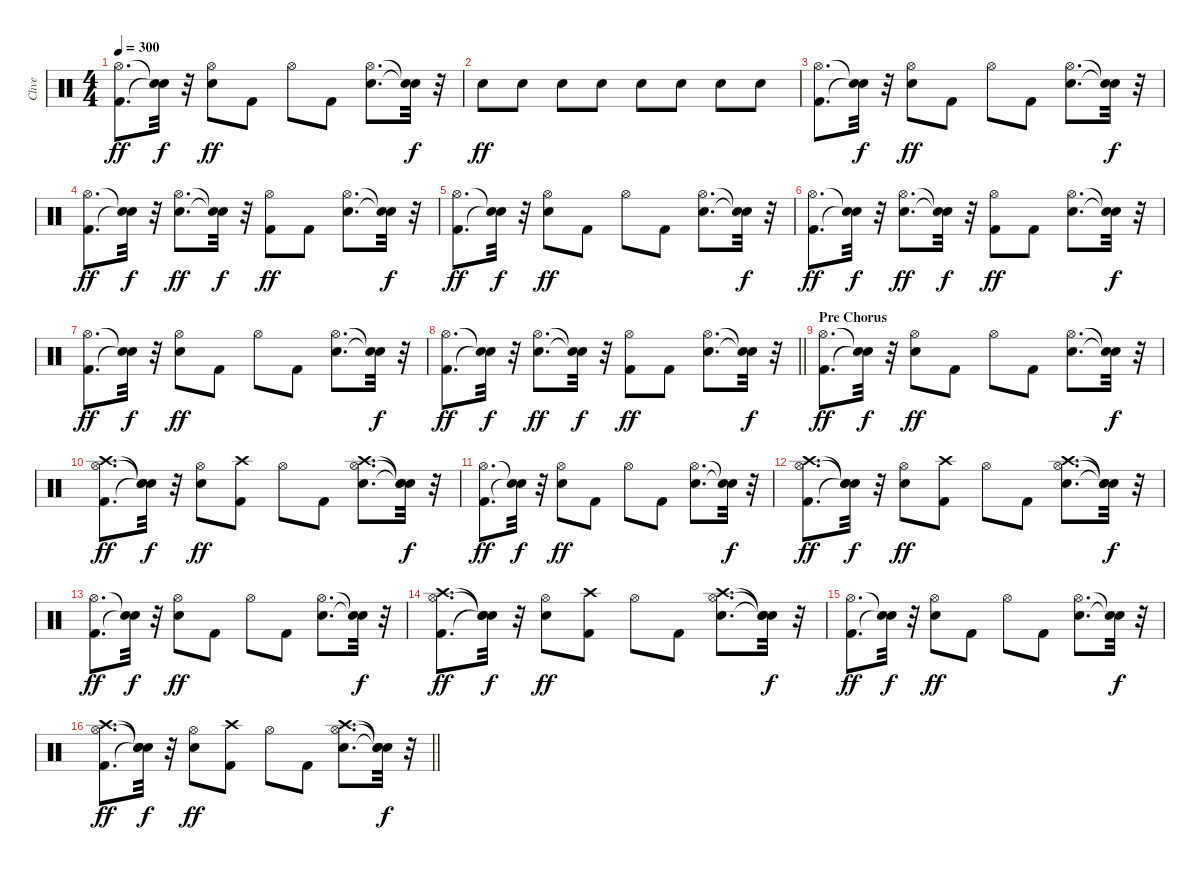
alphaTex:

\track ("Clive" "Clive") {instrument percussion}
\staff {score}
\articulation defaults
\ts (4 4)
\tempo 300
\clef neutral
\ks c
("Kick (hit) 2" "Hi-Hat (open)").8{d dy ff} ("Snare (hit)"{t} "Snare (hit)"{t}).32{dy f} r.32 ("Snare (hit) 2" "Hi-Hat (open)").8{dy ff} "Kick (hit) 2".8 "Hi-Hat (open)".8 "Kick (hit) 2".8 ("Snare (hit) 2" "Hi-Hat (open)").8{d} ("Snare (hit)"{t} "Snare (hit)"{t}).32{dy f} r.32 |
"Snare (hit) 2".8{dy ff} "Snare (hit) 2".8 "Snare (hit) 2".8 "Snare (hit) 2".8 "Snare (hit) 2".8 "Snare (hit) 2".8 "Snare (hit) 2".8 "Snare (hit) 2".8 |
("Kick (hit) 2" "Hi-Hat (open)").8{d} ("Snare (hit)"{t} "Snare (hit)"{t}).32{dy f} r.32 ("Snare (hit) 2" "Hi-Hat (open)").8{dy ff} "Kick (hit) 2".8 "Hi-Hat (open)".8 "Kick (hit) 2".8 ("Snare (hit) 2" "Hi-Hat (open)").8{d} ("Snare (hit)"{t} "Snare (hit)"{t}).32{dy f} r.32 |
("Kick (hit) 2" "Hi-Hat (open)").8{d dy ff} ("Snare (hit)"{t} "Snare (hit)"{t}).32{dy f} r.32 ("Snare (hit) 2" "Hi-Hat (open)").8{d dy ff} ("Snare (hit)"{t} "Snare (hit)"{t}).32{dy f} r.32 ("Kick (hit) 2" "Hi-Hat (open)").8{dy ff} "Kick (hit) 2".8 ("Snare (hit) 2" "Hi-Hat (open)").8{d} ("Snare (hit)"{t} "Snare (hit)"{t}).32{dy f} r.32 |
("Kick (hit) 2" "Hi-Hat (open)").8{d dy ff} ("Snare (hit)"{t} "Snare (hit)"{t}).32{dy f} r.32 ("Snare (hit) 2" "Hi-Hat (open)").8{dy ff} "Kick (hit) 2".8 "Hi-Hat (open)".8 "Kick (hit) 2".8 ("Snare (hit) 2" "Hi-Hat (open)").8{d} ("Snare (hit)"{t} "Snare (hit)"{t}).32{dy f} r.32 |
("Kick (hit) 2" "Hi-Hat (open)").8{d dy ff} ("Snare (hit)"{t} "Snare (hit)"{t}).32{dy f} r.32 ("Snare (hit) 2" "Hi-Hat (open)").8{d dy ff} ("Snare (hit)"{t} "Snare (hit)"{t}).32{dy f} r.32 ("Kick (hit) 2" "Hi-Hat (open)").8{dy ff} "Kick (hit) 2".8 ("Snare (hit) 2" "Hi-Hat (open)").8{d} ("Snare (hit)"{t} "Snare (hit)"{t}).32{dy f} r.32 |
("Kick (hit) 2" "Hi-Hat (open)").8{d dy ff} ("Snare (hit)"{t} "Snare (hit)"{t}).32{dy f} r.32 ("Snare (hit) 2" "Hi-Hat (open)").8{dy ff} "Kick (hit) 2".8 "Hi-Hat (open)".8 "Kick (hit) 2".8 ("Snare (hit) 2" "Hi-Hat (open)").8{d} ("Snare (hit)"{t} "Snare (hit)"{t}).32{dy f} r.32 |
\barLineRight lightlight
("Kick (hit) 2" "Hi-Hat (open)").8{d dy ff} ("Snare (hit)"{t} "Snare (hit)"{t}).32{dy f} r.32 ("Snare (hit) 2" "Hi-Hat (open)").8{d dy ff} ("Snare (hit)"{t} "Snare (hit)"{t}).32{dy f} r.32 ("Kick (hit) 2" "Hi-Hat (open)").8{dy ff} "Kick (hit) 2".8 ("Snare (hit) 2" "Hi-Hat (open)").8{d} ("Snare (hit)"{t} "Snare (hit)"{t}).32{dy f} r.32 |
\section ("" "Pre Chorus")
("Kick (hit) 2" "Hi-Hat (open)").8{d dy ff} ("Snare (hit)"{t} "Snare (hit)"{t}).32{dy f} r.32 ("Snare (hit) 2" "Hi-Hat (open)").8{dy ff} "Kick (hit) 2".8 "Hi-Hat (open)".8 "Kick (hit) 2".8 ("Snare (hit) 2" "Hi-Hat (open)").8{d} ("Snare (hit)"{t} "Snare (hit)"{t}).32{dy f} r.32 |
("Kick (hit) 2" "Hi-Hat (open)" "Crash high (hit)").8{d dy ff} ("Snare (hit)"{t} "Snare (hit)"{t} "Snare (hit)"{t}).32{dy f} r.32 ("Snare (hit) 2" "Hi-Hat (open)").8{dy ff} ("Kick (hit) 2" "Crash high (hit)").8 "Hi-Hat (open)".8 "Kick (hit) 2".8 ("Snare (hit) 2" "Hi-Hat (open)" "Crash high (hit)").8{d} ("Snare (hit)"{t} "Snare (hit)"{t} "Snare (hit)"{t}).32{dy f} r.32 |
("Kick (hit) 2" "Hi-Hat (open)").8{d dy ff} ("Snare (hit)"{t} "Snare (hit)"{t}).32{dy f} r.32 ("Snare (hit) 2" "Hi-Hat (open)").8{dy ff} "Kick (hit) 2".8 "Hi-Hat (open)".8 "Kick (hit) 2".8 ("Snare (hit) 2" "Hi-Hat (open)").8{d} ("Snare (hit)"{t} "Snare (hit)"{t}).32{dy f} r.32 |
("Kick (hit) 2" "Hi-Hat (open)" "Crash high (hit)").8{d dy ff} ("Snare (hit)"{t} "Snare (hit)"{t} "Snare (hit)"{t}).32{dy f} r.32 ("Snare (hit) 2" "Hi-Hat (open)").8{dy ff} ("Kick (hit) 2" "Crash high (hit)").8 "Hi-Hat (open)".8 "Kick (hit) 2".8 ("Snare (hit) 2" "Hi-Hat (open)" "Crash high (hit)").8{d} ("Snare (hit)"{t} "Snare (hit)"{t} "Snare (hit)"{t}).32{dy f} r.32 |
("Kick (hit) 2" "Hi-Hat (open)").8{d dy ff} ("Snare (hit)"{t} "Snare (hit)"{t}).32{dy f} r.32 ("Snare (hit) 2" "Hi-Hat (open)").8{dy ff} "Kick (hit) 2".8 "Hi-Hat (open)".8 "Kick (hit) 2".8 ("Snare (hit) 2" "Hi-Hat (open)").8{d} ("Snare (hit)"{t} "Snare (hit)"{t}).32{dy f} r.32 |
("Kick (hit) 2" "Hi-Hat (open)" "Crash high (hit)").8{d dy ff} ("Snare (hit)"{t} "Snare (hit)"{t} "Snare (hit)"{t}).32{dy f} r.32 ("Snare (hit) 2" "Hi-Hat (open)").8{dy ff} ("Kick (hit) 2" "Crash high (hit)").8 "Hi-Hat (open)".8 "Kick (hit) 2".8 ("Snare (hit) 2" "Hi-Hat (open)" "Crash high (hit)").8{d} ("Snare (hit)"{t} "Snare (hit)"{t} "Snare (hit)"{t}).32{dy f} r.32 |
("Kick (hit) 2" "Hi-Hat (open)").8{d dy ff} ("Snare (hit)"{t} "Snare (hit)"{t}).32{dy f} r.32 ("Snare (hit) 2" "Hi-Hat (open)").8{dy ff} "Kick (hit) 2".8 "Hi-Hat (open)".8 "Kick (hit) 2".8 ("Snare (hit) 2" "Hi-Hat (open)").8{d} ("Snare (hit)"{t} "Snare (hit)"{t}).32{dy f} r.32 |
\barLineRight lightlight
("Kick (hit) 2" "Hi-Hat (open)" "Crash high (hit)").8{d dy ff} ("Snare (hit)"{t} "Snare (hit)"{t} "Snare (hit)"{t}).32{dy f} r.32 ("Snare (hit) 2" "Hi-Hat (open)").8{dy ff} ("Kick (hit) 2" "Crash high (hit)").8 "Hi-Hat (open)".8 "Kick (hit) 2".8 ("Snare (hit) 2" "Hi-Hat (open)" "Crash high (hit)").8{d} ("Snare (hit)"{t} "Snare (hit)"{t} "Snare (hit)"{t}).32{dy f} r.32
